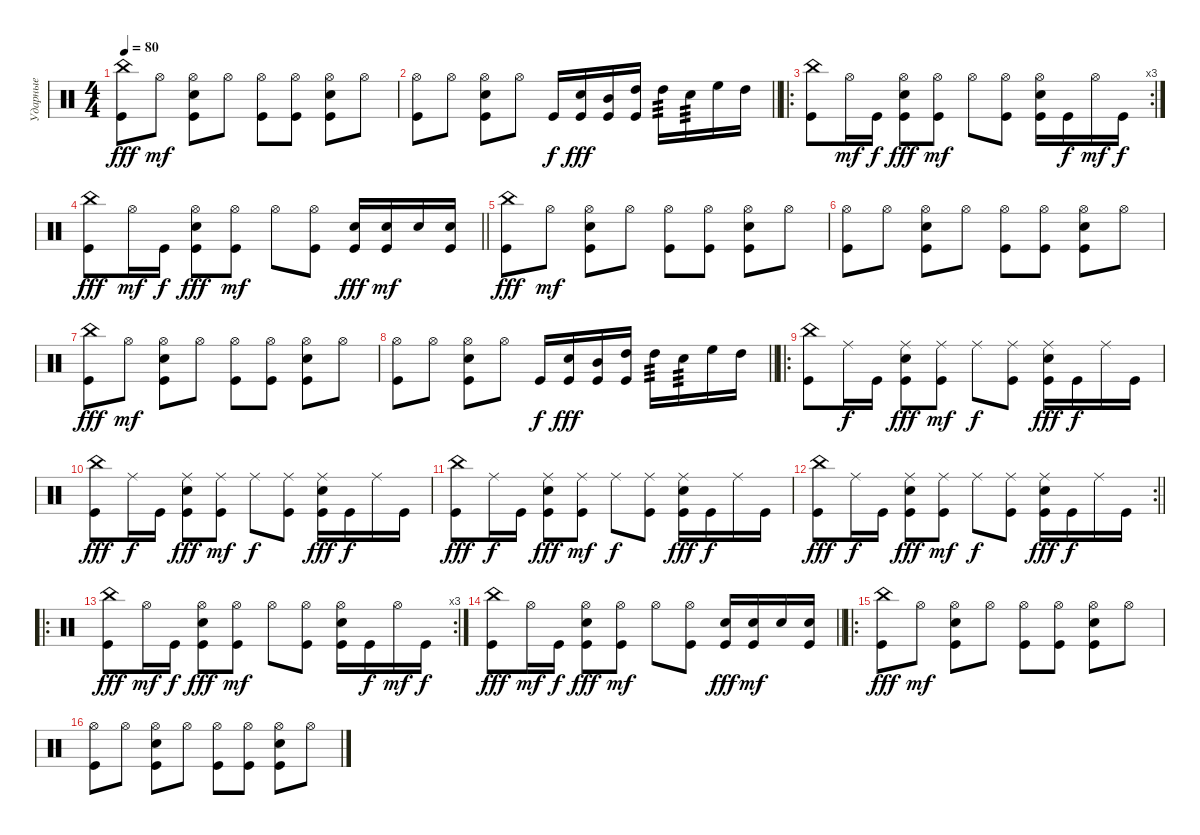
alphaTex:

\track ("Ударные" "Ударные") {instrument percussion}
\staff {score}
\articulation defaults
\ts (4 4)
\tempo 80
\clef neutral
\ks c
("Kick (hit)" "China (hit)").8{dy fff} "Hi-Hat (open)".8{dy mf} ("Kick (hit)" "Snare (hit) 2" "Hi-Hat (open)").8 "Hi-Hat (open)".8 ("Hi-Hat (open)" "Kick (hit)").8 ("Kick (hit)" "Hi-Hat (open)").8 ("Kick (hit)" "Snare (hit) 2" "Hi-Hat (open)").8 "Hi-Hat (open)".8 |
\barLineRight lightlight
("Hi-Hat (open)" "Kick (hit)").8 "Hi-Hat (open)".8 ("Kick (hit)" "Snare (hit) 2" "Hi-Hat (open)").8 "Hi-Hat (open)".8 "Kick (hit)".16{dy f} ("Kick (hit)" "Snare (hit) 2").16{dy fff} ("Kick (hit)" "Mid Tom (hit)").16 ("High Tom (hit)" "Kick (hit)").16 "High Tom (hit)".16{tp 3} "Snare (hit) 2".16{tp 3} "High Floor Tom (hit)".16 "High Tom (hit)".16 |
\ro
\rc 3
("Kick (hit)" "China (hit)").8 "Hi-Hat (open)".16{dy mf} "Kick (hit)".16{dy f} ("Hi-Hat (open)" "Kick (hit)" "Snare (hit) 2").8{dy fff} ("Hi-Hat (open)" "Kick (hit)").8{dy mf} "Hi-Hat (open)".8 ("Kick (hit)" "Hi-Hat (open)").8 ("Kick (hit)" "Snare (hit) 2" "Hi-Hat (open)").16 "Kick (hit)".16{dy f} "Hi-Hat (open)".16{dy mf} "Kick (hit)".16{dy f} |
\barLineRight lightlight
("Kick (hit)" "China (hit)").8{dy fff} "Hi-Hat (open)".16{dy mf} "Kick (hit)".16{dy f} ("Hi-Hat (open)" "Kick (hit)" "Snare (hit) 2").8{dy fff} ("Hi-Hat (open)" "Kick (hit)").8{dy mf} "Hi-Hat (open)".8 ("Kick (hit)" "Hi-Hat (open)").8 ("Kick (hit)" "Snare (hit) 2").16{dy fff} ("Kick (hit)" "Snare (hit) 2").16{dy mf} "Snare (hit) 2".16 ("Kick (hit)" "Snare (hit) 2").16 |
("Kick (hit)" "China (hit)").8{dy fff} "Hi-Hat (open)".8{dy mf} ("Kick (hit)" "Snare (hit) 2" "Hi-Hat (open)").8 "Hi-Hat (open)".8 ("Hi-Hat (open)" "Kick (hit)").8 ("Kick (hit)" "Hi-Hat (open)").8 ("Kick (hit)" "Snare (hit) 2" "Hi-Hat (open)").8 "Hi-Hat (open)".8 |
("Hi-Hat (open)" "Kick (hit)").8 "Hi-Hat (open)".8 ("Kick (hit)" "Snare (hit) 2" "Hi-Hat (open)").8 "Hi-Hat (open)".8 ("Hi-Hat (open)" "Kick (hit)").8 ("Kick (hit)" "Hi-Hat (open)").8 ("Kick (hit)" "Snare (hit) 2" "Hi-Hat (open)").8 "Hi-Hat (open)".8 |
("Kick (hit)" "China (hit)").8{dy fff} "Hi-Hat (open)".8{dy mf} ("Kick (hit)" "Snare (hit) 2" "Hi-Hat (open)").8 "Hi-Hat (open)".8 ("Hi-Hat (open)" "Kick (hit)").8 ("Kick (hit)" "Hi-Hat (open)").8 ("Kick (hit)" "Snare (hit) 2" "Hi-Hat (open)").8 "Hi-Hat (open)".8 |
\barLineRight lightlight
("Hi-Hat (open)" "Kick (hit)").8 "Hi-Hat (open)".8 ("Kick (hit)" "Snare (hit) 2" "Hi-Hat (open)").8 "Hi-Hat (open)".8 "Kick (hit)".16{dy f} ("Kick (hit)" "Snare (hit) 2").16{dy fff} ("Kick (hit)" "Mid Tom (hit)").16 ("High Tom (hit)" "Kick (hit)").16 "High Tom (hit)".16{tp 3} "Snare (hit) 2".16{tp 3} "High Floor Tom (hit)".16 "High Tom (hit)".16 |
\ro
("Kick (hit)" "China (hit)").8 "Ride (middle)".16{dy f} "Kick (hit)".16 ("Ride (middle)" "Kick (hit)" "Snare (hit) 2").8{dy fff} ("Ride (middle)" "Kick (hit)").8{dy mf} "Ride (middle)".8{dy f} ("Kick (hit)" "Ride (middle)").8 ("Kick (hit)" "Snare (hit) 2" "Ride (middle)").16{dy fff} "Kick (hit)".16{dy f} "Ride (middle)".16 "Kick (hit)".16 |
("Kick (hit)" "China (hit)").8{dy fff} "Ride (middle)".16{dy f} "Kick (hit)".16 ("Ride (middle)" "Kick (hit)" "Snare (hit) 2").8{dy fff} ("Ride (middle)" "Kick (hit)").8{dy mf} "Ride (middle)".8{dy f} ("Kick (hit)" "Ride (middle)").8 ("Kick (hit)" "Snare (hit) 2" "Ride (middle)").16{dy fff} "Kick (hit)".16{dy f} "Ride (middle)".16 "Kick (hit)".16 |
("Kick (hit)" "China (hit)").8{dy fff} "Ride (middle)".16{dy f} "Kick (hit)".16 ("Ride (middle)" "Kick (hit)" "Snare (hit) 2").8{dy fff} ("Ride (middle)" "Kick (hit)").8{dy mf} "Ride (middle)".8{dy f} ("Kick (hit)" "Ride (middle)").8 ("Kick (hit)" "Snare (hit) 2" "Ride (middle)").16{dy fff} "Kick (hit)".16{dy f} "Ride (middle)".16 "Kick (hit)".16 |
\rc 2
\barLineRight lightlight
("Kick (hit)" "China (hit)").8{dy fff} "Ride (middle)".16{dy f} "Kick (hit)".16 ("Ride (middle)" "Kick (hit)" "Snare (hit) 2").8{dy fff} ("Ride (middle)" "Kick (hit)").8{dy mf} "Ride (middle)".8{dy f} ("Kick (hit)" "Ride (middle)").8 ("Kick (hit)" "Snare (hit) 2" "Ride (middle)").16{dy fff} "Kick (hit)".16{dy f} "Ride (middle)".16 "Kick (hit)".16 |
\ro
\rc 3
("Kick (hit)" "China (hit)").8{dy fff} "Hi-Hat (open)".16{dy mf} "Kick (hit)".16{dy f} ("Hi-Hat (open)" "Kick (hit)" "Snare (hit) 2").8{dy fff} ("Hi-Hat (open)" "Kick (hit)").8{dy mf} "Hi-Hat (open)".8 ("Kick (hit)" "Hi-Hat (open)").8 ("Kick (hit)" "Snare (hit) 2" "Hi-Hat (open)").16 "Kick (hit)".16{dy f} "Hi-Hat (open)".16{dy mf} "Kick (hit)".16{dy f} |
\barLineRight lightlight
("Kick (hit)" "China (hit)").8{dy fff} "Hi-Hat (open)".16{dy mf} "Kick (hit)".16{dy f} ("Hi-Hat (open)" "Kick (hit)" "Snare (hit) 2").8{dy fff} ("Hi-Hat (open)" "Kick (hit)").8{dy mf} "Hi-Hat (open)".8 ("Kick (hit)" "Hi-Hat (open)").8 ("Kick (hit)" "Snare (hit) 2").16{dy fff} ("Kick (hit)" "Snare (hit) 2").16{dy mf} "Snare (hit) 2".16 ("Kick (hit)" "Snare (hit) 2").16 |
\ro
("Kick (hit)" "China (hit)").8{dy fff} "Hi-Hat (open)".8{dy mf} ("Kick (hit)" "Snare (hit) 2" "Hi-Hat (open)").8 "Hi-Hat (open)".8 ("Hi-Hat (open)" "Kick (hit)").8 ("Kick (hit)" "Hi-Hat (open)").8 ("Kick (hit)" "Snare (hit) 2" "Hi-Hat (open)").8 "Hi-Hat (open)".8 |
("Hi-Hat (open)" "Kick (hit)").8 "Hi-Hat (open)".8 ("Kick (hit)" "Snare (hit) 2" "Hi-Hat (open)").8 "Hi-Hat (open)".8 ("Hi-Hat (open)" "Kick (hit)").8 ("Kick (hit)" "Hi-Hat (open)").8 ("Kick (hit)" "Snare (hit) 2" "Hi-Hat (open)").8 "Hi-Hat (open)".8
